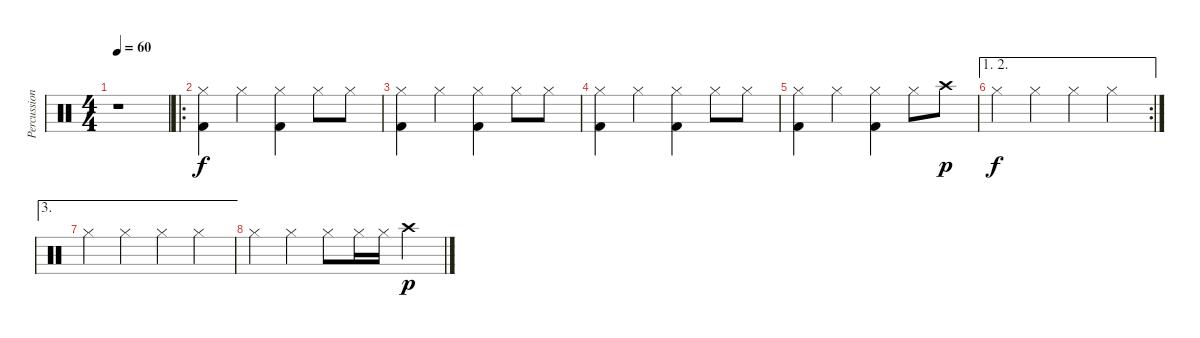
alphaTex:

\track ("Percussions" "Percussion") {instrument percussion}
\staff {score}
\articulation defaults
\ts (4 4)
\tempo 60
\clef neutral
\ks c
r.1{dy f} |
\ro
("Kick (hit) 2" "Hi-Hat (closed)").4 "Hi-Hat (closed)".4 ("Kick (hit) 2" "Hi-Hat (closed)").4 "Hi-Hat (closed)".8 "Hi-Hat (closed)".8 |
("Kick (hit) 2" "Hi-Hat (closed)").4 "Hi-Hat (closed)".4 ("Kick (hit) 2" "Hi-Hat (closed)").4 "Hi-Hat (closed)".8 "Hi-Hat (closed)".8 |
("Kick (hit) 2" "Hi-Hat (closed)").4 "Hi-Hat (closed)".4 ("Kick (hit) 2" "Hi-Hat (closed)").4 "Hi-Hat (closed)".8 "Hi-Hat (closed)".8 |
("Kick (hit) 2" "Hi-Hat (closed)").4 "Hi-Hat (closed)".4 ("Kick (hit) 2" "Hi-Hat (closed)").4 "Hi-Hat (closed)".8 "Crash high (hit)".8{dy p} |
\ae (1 2)
\rc 2 "Hi-Hat (closed)".4{dy f} "Hi-Hat (closed)".4 "Hi-Hat (closed)".4 "Hi-Hat (closed)".4
|
\ae 3 "Hi-Hat (closed)".4 "Hi-Hat (closed)".4 "Hi-Hat (closed)".4 "Hi-Hat (closed)".4
|
"Hi-Hat (closed)".4 "Hi-Hat (closed)".4 "Hi-Hat (closed)".8 "Hi-Hat (closed)".16 "Hi-Hat (closed)".16 "Crash high (hit)".4{dy p}
